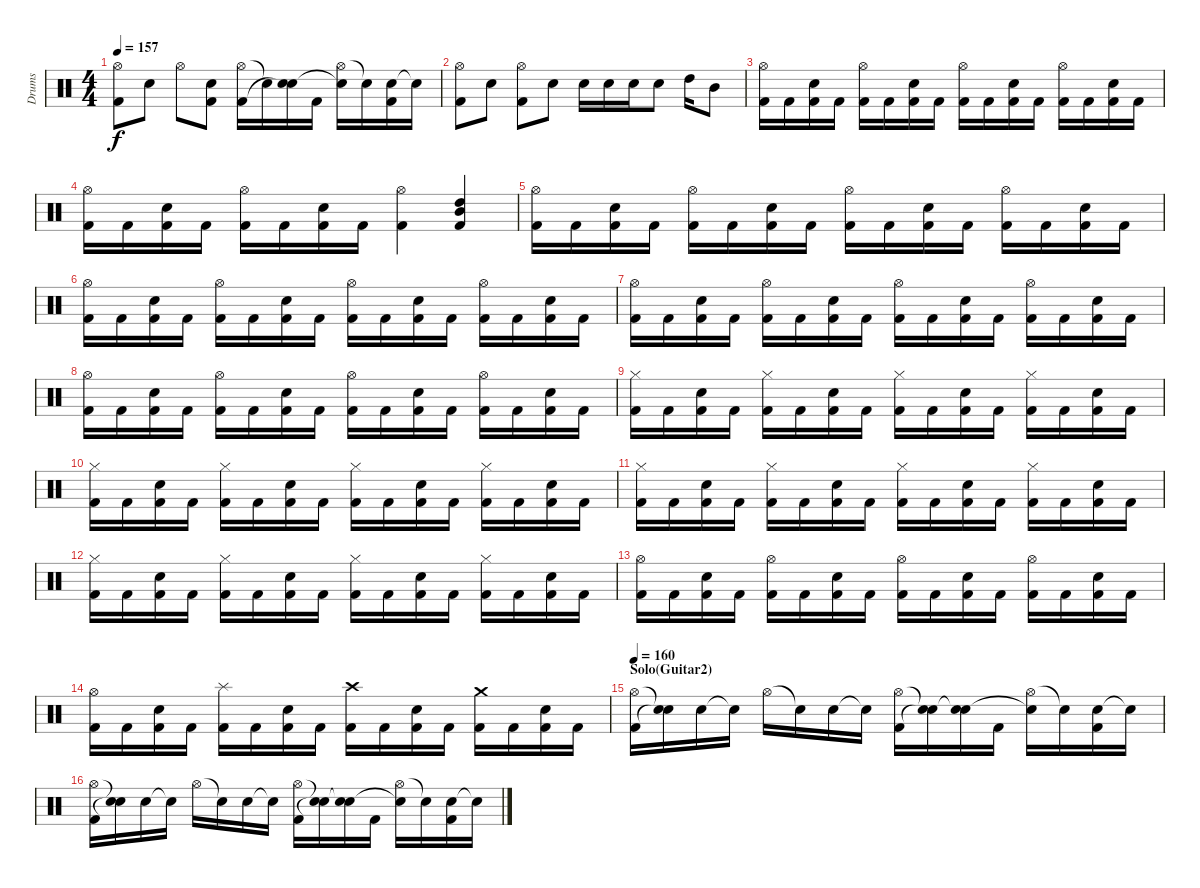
\track ("Drums" "Drums") {instrument percussion}
\staff {score}
\articulation defaults
\ts (4 4)
\tempo 157
\clef neutral
\ks c
("Hi-Hat (open)" "Kick (hit) 2").8{dy f} "Electric Snare (hit)".8 "Hi-Hat (open)".8 ("Electric Snare (hit)" "Kick (hit) 2").8 ("Hi-Hat (open)" "Kick (hit) 2").16 "Snare (hit)"{t}.16 ("Electric Snare (hit)" "Snare (hit)"{t}).16 "Kick (hit) 2".16 ("Hi-Hat (open)" "Snare (hit)"{t}).16 "Snare (hit)"{t}.16 ("Electric Snare (hit)" "Kick (hit) 2").16 "Snare (hit)"{t}.16 |
("Hi-Hat (open)" "Kick (hit) 2").8 "Electric Snare (hit)".8 ("Hi-Hat (open)" "Kick (hit) 2").8 "Electric Snare (hit)".8 "Electric Snare (hit)".16 "Electric Snare (hit)".16 "Electric Snare (hit)".16 "Electric Snare (hit)".8 "High Tom (hit)".16 "Mid Tom (hit)".8 |
("Hi-Hat (open)" "Kick (hit) 2").16 "Kick (hit) 2".16 ("Electric Snare (hit)" "Kick (hit) 2").16 "Kick (hit) 2".16 ("Hi-Hat (open)" "Kick (hit) 2").16 "Kick (hit) 2".16 ("Electric Snare (hit)" "Kick (hit) 2").16 "Kick (hit) 2".16 ("Hi-Hat (open)" "Kick (hit) 2").16 "Kick (hit) 2".16 ("Electric Snare (hit)" "Kick (hit) 2").16 "Kick (hit) 2".16 ("Hi-Hat (open)" "Kick (hit) 2").16 "Kick (hit) 2".16 ("Electric Snare (hit)" "Kick (hit) 2").16 "Kick (hit) 2".16 |
("Hi-Hat (open)" "Kick (hit) 2").16 "Kick (hit) 2".16 ("Electric Snare (hit)" "Kick (hit) 2").16 "Kick (hit) 2".16 ("Hi-Hat (open)" "Kick (hit) 2").16 "Kick (hit) 2".16 ("Electric Snare (hit)" "Kick (hit) 2").16 "Kick (hit) 2".16 ("Hi-Hat (open)" "Kick (hit) 2").4 ("Kick (hit) 2" "High Tom (hit)" "Mid Tom (hit)").4 |
("Hi-Hat (open)" "Kick (hit) 2").16 "Kick (hit) 2".16 ("Electric Snare (hit)" "Kick (hit) 2").16 "Kick (hit) 2".16 ("Hi-Hat (open)" "Kick (hit) 2").16 "Kick (hit) 2".16 ("Electric Snare (hit)" "Kick (hit) 2").16 "Kick (hit) 2".16 ("Hi-Hat (open)" "Kick (hit) 2").16 "Kick (hit) 2".16 ("Electric Snare (hit)" "Kick (hit) 2").16 "Kick (hit) 2".16 ("Hi-Hat (open)" "Kick (hit) 2").16 "Kick (hit) 2".16 ("Electric Snare (hit)" "Kick (hit) 2").16 "Kick (hit) 2".16 |
("Hi-Hat (open)" "Kick (hit) 2").16 "Kick (hit) 2".16 ("Electric Snare (hit)" "Kick (hit) 2").16 "Kick (hit) 2".16 ("Hi-Hat (open)" "Kick (hit) 2").16 "Kick (hit) 2".16 ("Electric Snare (hit)" "Kick (hit) 2").16 "Kick (hit) 2".16 ("Hi-Hat (open)" "Kick (hit) 2").16 "Kick (hit) 2".16 ("Electric Snare (hit)" "Kick (hit) 2").16 "Kick (hit) 2".16 ("Hi-Hat (open)" "Kick (hit) 2").16 "Kick (hit) 2".16 ("Electric Snare (hit)" "Kick (hit) 2").16 "Kick (hit) 2".16 |
("Hi-Hat (open)" "Kick (hit) 2").16 "Kick (hit) 2".16 ("Electric Snare (hit)" "Kick (hit) 2").16 "Kick (hit) 2".16 ("Hi-Hat (open)" "Kick (hit) 2").16 "Kick (hit) 2".16 ("Electric Snare (hit)" "Kick (hit) 2").16 "Kick (hit) 2".16 ("Hi-Hat (open)" "Kick (hit) 2").16 "Kick (hit) 2".16 ("Electric Snare (hit)" "Kick (hit) 2").16 "Kick (hit) 2".16 ("Hi-Hat (open)" "Kick (hit) 2").16 "Kick (hit) 2".16 ("Electric Snare (hit)" "Kick (hit) 2").16 "Kick (hit) 2".16 |
("Hi-Hat (open)" "Kick (hit) 2").16 "Kick (hit) 2".16 ("Electric Snare (hit)" "Kick (hit) 2").16 "Kick (hit) 2".16 ("Hi-Hat (open)" "Kick (hit) 2").16 "Kick (hit) 2".16 ("Electric Snare (hit)" "Kick (hit) 2").16 "Kick (hit) 2".16 ("Hi-Hat (open)" "Kick (hit) 2").16 "Kick (hit) 2".16 ("Electric Snare (hit)" "Kick (hit) 2").16 "Kick (hit) 2".16 ("Hi-Hat (open)" "Kick (hit) 2").16 "Kick (hit) 2".16 ("Electric Snare (hit)" "Kick (hit) 2").16 "Kick (hit) 2".16 |
("Hi-Hat (closed)" "Kick (hit) 2").16 "Kick (hit) 2".16 ("Electric Snare (hit)" "Kick (hit) 2").16 "Kick (hit) 2".16 ("Hi-Hat (closed)" "Kick (hit) 2").16 "Kick (hit) 2".16 ("Electric Snare (hit)" "Kick (hit) 2").16 "Kick (hit) 2".16 ("Hi-Hat (closed)" "Kick (hit) 2").16 "Kick (hit) 2".16 ("Electric Snare (hit)" "Kick (hit) 2").16 "Kick (hit) 2".16 ("Hi-Hat (closed)" "Kick (hit) 2").16 "Kick (hit) 2".16 ("Electric Snare (hit)" "Kick (hit) 2").16 "Kick (hit) 2".16 |
("Hi-Hat (closed)" "Kick (hit) 2").16 "Kick (hit) 2".16 ("Electric Snare (hit)" "Kick (hit) 2").16 "Kick (hit) 2".16 ("Hi-Hat (closed)" "Kick (hit) 2").16 "Kick (hit) 2".16 ("Electric Snare (hit)" "Kick (hit) 2").16 "Kick (hit) 2".16 ("Hi-Hat (closed)" "Kick (hit) 2").16 "Kick (hit) 2".16 ("Electric Snare (hit)" "Kick (hit) 2").16 "Kick (hit) 2".16 ("Hi-Hat (closed)" "Kick (hit) 2").16 "Kick (hit) 2".16 ("Electric Snare (hit)" "Kick (hit) 2").16 "Kick (hit) 2".16 |
("Hi-Hat (closed)" "Kick (hit) 2").16 "Kick (hit) 2".16 ("Electric Snare (hit)" "Kick (hit) 2").16 "Kick (hit) 2".16 ("Hi-Hat (closed)" "Kick (hit) 2").16 "Kick (hit) 2".16 ("Electric Snare (hit)" "Kick (hit) 2").16 "Kick (hit) 2".16 ("Hi-Hat (closed)" "Kick (hit) 2").16 "Kick (hit) 2".16 ("Electric Snare (hit)" "Kick (hit) 2").16 "Kick (hit) 2".16 ("Hi-Hat (closed)" "Kick (hit) 2").16 "Kick (hit) 2".16 ("Electric Snare (hit)" "Kick (hit) 2").16 "Kick (hit) 2".16 |
("Hi-Hat (closed)" "Kick (hit) 2").16 "Kick (hit) 2".16 ("Electric Snare (hit)" "Kick (hit) 2").16 "Kick (hit) 2".16 ("Hi-Hat (closed)" "Kick (hit) 2").16 "Kick (hit) 2".16 ("Electric Snare (hit)" "Kick (hit) 2").16 "Kick (hit) 2".16 ("Hi-Hat (closed)" "Kick (hit) 2").16 "Kick (hit) 2".16 ("Electric Snare (hit)" "Kick (hit) 2").16 "Kick (hit) 2".16 ("Hi-Hat (closed)" "Kick (hit) 2").16 "Kick (hit) 2".16 ("Electric Snare (hit)" "Kick (hit) 2").16 "Kick (hit) 2".16 |
("Hi-Hat (open)" "Kick (hit) 2").16 "Kick (hit) 2".16 ("Electric Snare (hit)" "Kick (hit) 2").16 "Kick (hit) 2".16 ("Hi-Hat (open)" "Kick (hit) 2").16 "Kick (hit) 2".16 ("Electric Snare (hit)" "Kick (hit) 2").16 "Kick (hit) 2".16 ("Hi-Hat (open)" "Kick (hit) 2").16 "Kick (hit) 2".16 ("Electric Snare (hit)" "Kick (hit) 2").16 "Kick (hit) 2".16 ("Hi-Hat (open)" "Kick (hit) 2").16 "Kick (hit) 2".16 ("Electric Snare (hit)" "Kick (hit) 2").16 "Kick (hit) 2".16 |
("Hi-Hat (open)" "Kick (hit) 2").16 "Kick (hit) 2".16 ("Electric Snare (hit)" "Kick (hit) 2").16 "Kick (hit) 2".16 ("Splash (hit)" "Kick (hit) 2").16 "Kick (hit) 2".16 ("Electric Snare (hit)" "Kick (hit) 2").16 "Kick (hit) 2".16 ("Crash high (hit)" "Kick (hit) 2").16 "Kick (hit) 2".16 ("Electric Snare (hit)" "Kick (hit) 2").16 "Kick (hit) 2".16 ("Crash medium (hit)" "Kick (hit) 2").16 "Kick (hit) 2".16 ("Electric Snare (hit)" "Kick (hit) 2").16 "Kick (hit) 2".16 |
\section ("" "Solo(Guitar2)")
\tempo 160
("Hi-Hat (open)" "Kick (hit) 2").16 ("Snare (hit)"{t} "Snare (hit)"{t}).16 "Electric Snare (hit)".16 "Snare (hit)"{t}.16 "Hi-Hat (open)".16 "Snare (hit)"{t}.16 "Electric Snare (hit)".16 "Snare (hit)"{t}.16 ("Hi-Hat (open)" "Kick (hit) 2").16 ("Snare (hit)"{t} "Snare (hit)"{t}).16 ("Electric Snare (hit)" "Snare (hit)"{t}).16 "Kick (hit) 2".16 ("Hi-Hat (open)" "Snare (hit)"{t}).16 "Snare (hit)"{t}.16 ("Electric Snare (hit)" "Kick (hit) 2").16 "Snare (hit)"{t}.16 |
("Hi-Hat (open)" "Kick (hit) 2").16 ("Snare (hit)"{t} "Snare (hit)"{t}).16 "Electric Snare (hit)".16 "Snare (hit)"{t}.16 "Hi-Hat (open)".16 "Snare (hit)"{t}.16 "Electric Snare (hit)".16 "Snare (hit)"{t}.16 ("Hi-Hat (open)" "Kick (hit) 2").16 ("Snare (hit)"{t} "Snare (hit)"{t}).16 ("Electric Snare (hit)" "Snare (hit)"{t}).16 "Kick (hit) 2".16 ("Hi-Hat (open)" "Snare (hit)"{t}).16 "Snare (hit)"{t}.16 ("Electric Snare (hit)" "Kick (hit) 2").16 "Snare (hit)"{t}.16
